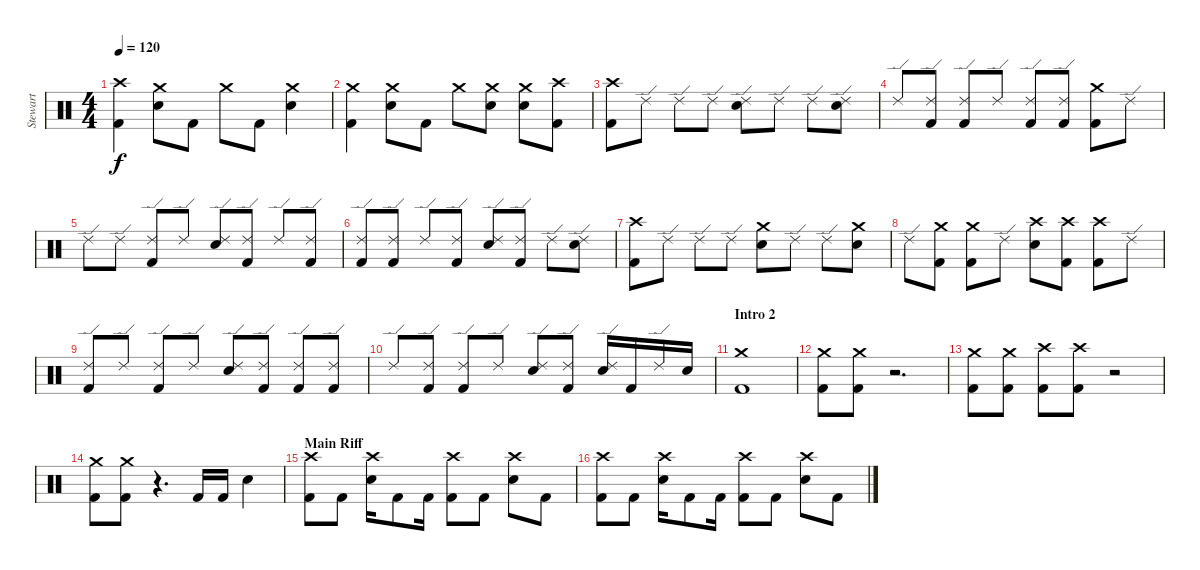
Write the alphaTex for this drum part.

\track ("Stewart" "Stewart") {instrument percussion}
\staff {score}
\articulation defaults
\ts (4 4)
\tempo 120
\clef neutral
\ks c
("Crash high (hit)" "Kick (hit) 2").4{dy f} ("Crash medium (hit)" "Electric Snare (hit)").8 "Kick (hit) 2".8 "Crash medium (hit)".8 "Kick (hit) 2".8 ("Crash medium (hit)" "Electric Snare (hit)").4 |
("Crash medium (hit)" "Kick (hit) 2").4 ("Crash medium (hit)" "Electric Snare (hit)").8 "Kick (hit) 2".8 "Crash medium (hit)".8 ("Crash medium (hit)" "Electric Snare (hit)").8 ("Crash medium (hit)" "Electric Snare (hit)").8 ("Crash high (hit)" "Kick (hit) 2").8 |
("Crash high (hit)" "Kick (hit) 2").8 "Ride (edge) 2".8 "Ride (edge) 2".8 "Ride (edge) 2".8 ("Ride (edge) 2" "Electric Snare (hit)").8 "Ride (edge) 2".8 "Ride (edge) 2".8 ("Ride (edge) 2" "Electric Snare (hit)").8 |
"Ride (edge) 2".8 ("Ride (edge) 2" "Kick (hit) 2").8 ("Ride (edge) 2" "Kick (hit) 2").8 "Ride (edge) 2".8 ("Ride (edge) 2" "Kick (hit) 2").8 ("Ride (edge) 2" "Kick (hit) 2").8 ("Crash medium (hit)" "Kick (hit) 2").8 "Ride (edge) 2".8 |
"Ride (edge) 2".8 "Ride (edge) 2".8 ("Ride (edge) 2" "Kick (hit) 2").8 "Ride (edge) 2".8 ("Ride (edge) 2" "Electric Snare (hit)").8 ("Ride (edge) 2" "Kick (hit) 2").8 "Ride (edge) 2".8 ("Ride (edge) 2" "Kick (hit) 2").8 |
("Ride (edge) 2" "Kick (hit) 2").8 ("Ride (edge) 2" "Kick (hit) 2").8 "Ride (edge) 2".8 ("Ride (edge) 2" "Kick (hit) 2").8 ("Ride (edge) 2" "Electric Snare (hit)").8 ("Ride (edge) 2" "Kick (hit) 2").8 "Ride (edge) 2".8 ("Ride (edge) 2" "Electric Snare (hit)").8 |
("Crash high (hit)" "Kick (hit) 2").8 "Ride (edge) 2".8 "Ride (edge) 2".8 "Ride (edge) 2".8 ("Crash medium (hit)" "Electric Snare (hit)").8 "Ride (edge) 2".8 "Ride (edge) 2".8 ("Crash medium (hit)" "Electric Snare (hit)").8 |
"Ride (edge) 2".8 ("Crash medium (hit)" "Kick (hit) 2").8 ("Crash medium (hit)" "Kick (hit) 2").8 "Ride (edge) 2".8 ("Crash high (hit)" "Electric Snare (hit)").8 ("Crash high (hit)" "Kick (hit) 2").8 ("Crash high (hit)" "Kick (hit) 2").8 "Ride (edge) 2".8 |
("Ride (edge) 2" "Kick (hit) 2").8 "Ride (edge) 2".8 ("Ride (edge) 2" "Kick (hit) 2").8 "Ride (edge) 2".8 ("Ride (edge) 2" "Electric Snare (hit)").8 ("Ride (edge) 2" "Kick (hit) 2").8 ("Ride (edge) 2" "Kick (hit) 2").8 ("Ride (edge) 2" "Kick (hit) 2").8 |
"Ride (edge) 2".8 ("Ride (edge) 2" "Kick (hit) 2").8 ("Ride (edge) 2" "Kick (hit) 2").8 "Ride (edge) 2".8 ("Ride (edge) 2" "Electric Snare (hit)").8 ("Ride (edge) 2" "Kick (hit) 2").8 ("Ride (edge) 2" "Electric Snare (hit)").16 "Kick (hit) 2".16 "Ride (edge) 2".16 "Electric Snare (hit)".16 |
\section ("" "Intro 2")
("Crash medium (hit)" "Kick (hit) 2").1 |
("Crash medium (hit)" "Kick (hit) 2").8 ("Crash medium (hit)" "Kick (hit) 2").8 r.2{d} |
("Crash medium (hit)" "Kick (hit) 2").8 ("Crash medium (hit)" "Kick (hit) 2").8 ("Crash high (hit)" "Kick (hit) 2").8 ("Crash high (hit)" "Kick (hit) 2").8 r.2 |
("Crash medium (hit)" "Kick (hit) 2").8 ("Crash medium (hit)" "Kick (hit) 2").8 r.4{d} "Kick (hit) 2".16 "Kick (hit) 2".16 "Electric Snare (hit)".4 |
\section ("" "Main Riff")
("Kick (hit) 2" "Crash high (hit)").8 "Kick (hit) 2".8 ("Electric Snare (hit)" "Crash high (hit)").16 "Kick (hit) 2".8 "Kick (hit) 2".16 ("Kick (hit) 2" "Crash high (hit)").8 "Kick (hit) 2".8 ("Electric Snare (hit)" "Crash high (hit)").8 "Kick (hit) 2".8 |
("Kick (hit) 2" "Crash high (hit)").8 "Kick (hit) 2".8 ("Electric Snare (hit)" "Crash high (hit)").16 "Kick (hit) 2".8 "Kick (hit) 2".16 ("Kick (hit) 2" "Crash high (hit)").8 "Kick (hit) 2".8 ("Electric Snare (hit)" "Crash high (hit)").8 "Kick (hit) 2".8
